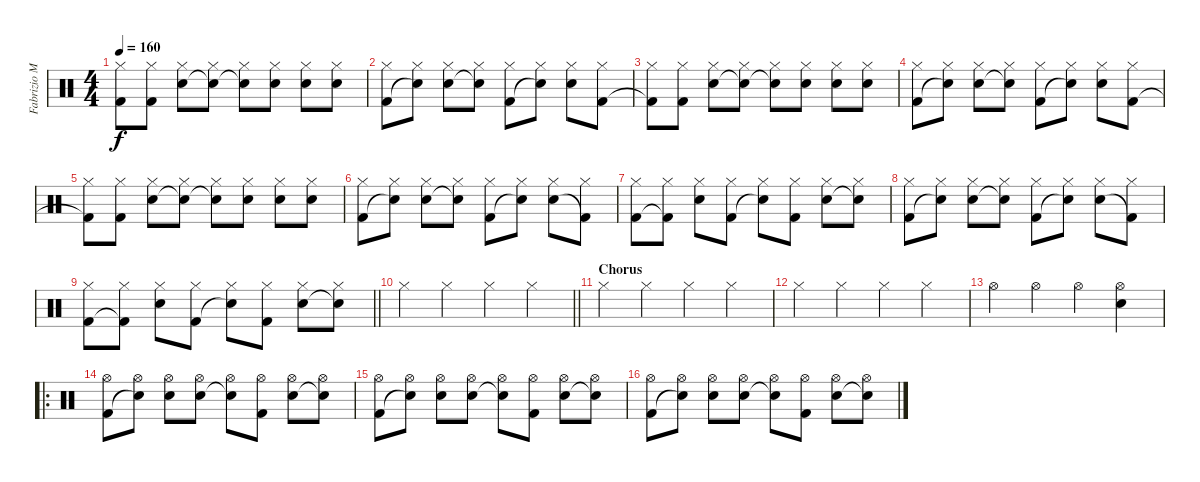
\track ("Fabrizio Moretti" "Fabrizio M") {instrument percussion}
\staff {score}
\articulation defaults
\ts (4 4)
\tempo 160
\clef neutral
\ks c
("Hi-Hat (closed)" "Kick (hit) 2"{t}).8{dy f} ("Hi-Hat (closed)" "Kick (hit) 2").8 ("Hi-Hat (closed)" "Electric Snare (hit)").8 ("Hi-Hat (closed)" "Snare (hit)"{t}).8 ("Hi-Hat (closed)" "Snare (hit)"{t}).8 ("Hi-Hat (closed)" "Electric Snare (hit)").8 ("Hi-Hat (closed)" "Electric Snare (hit)").8 ("Hi-Hat (closed)" "Electric Snare (hit)").8 |
("Hi-Hat (closed)" "Kick (hit) 2").8 ("Hi-Hat (closed)" "Snare (hit)"{t}).8 ("Hi-Hat (closed)" "Electric Snare (hit)").8 ("Hi-Hat (closed)" "Snare (hit)"{t}).8 ("Hi-Hat (closed)" "Kick (hit) 2").8 ("Hi-Hat (closed)" "Snare (hit)"{t}).8 ("Hi-Hat (closed)" "Electric Snare (hit)").8 ("Hi-Hat (closed)" "Kick (hit) 2").8 |
("Hi-Hat (closed)" "Kick (hit) 2"{t}).8 ("Hi-Hat (closed)" "Kick (hit) 2").8 ("Hi-Hat (closed)" "Electric Snare (hit)").8 ("Hi-Hat (closed)" "Snare (hit)"{t}).8 ("Hi-Hat (closed)" "Snare (hit)"{t}).8 ("Hi-Hat (closed)" "Electric Snare (hit)").8 ("Hi-Hat (closed)" "Electric Snare (hit)").8 ("Hi-Hat (closed)" "Electric Snare (hit)").8 |
("Hi-Hat (closed)" "Kick (hit) 2").8 ("Hi-Hat (closed)" "Snare (hit)"{t}).8 ("Hi-Hat (closed)" "Electric Snare (hit)").8 ("Hi-Hat (closed)" "Snare (hit)"{t}).8 ("Hi-Hat (closed)" "Kick (hit) 2").8 ("Hi-Hat (closed)" "Snare (hit)"{t}).8 ("Hi-Hat (closed)" "Electric Snare (hit)").8 ("Hi-Hat (closed)" "Kick (hit) 2").8 |
("Hi-Hat (closed)" "Kick (hit) 2"{t}).8 ("Hi-Hat (closed)" "Kick (hit) 2").8 ("Hi-Hat (closed)" "Electric Snare (hit)").8 ("Hi-Hat (closed)" "Snare (hit)"{t}).8 ("Hi-Hat (closed)" "Snare (hit)"{t}).8 ("Hi-Hat (closed)" "Electric Snare (hit)").8 ("Hi-Hat (closed)" "Electric Snare (hit)").8 ("Hi-Hat (closed)" "Electric Snare (hit)").8 |
("Hi-Hat (closed)" "Kick (hit) 2").8 ("Hi-Hat (closed)" "Snare (hit)"{t}).8 ("Hi-Hat (closed)" "Electric Snare (hit)").8 ("Hi-Hat (closed)" "Snare (hit)"{t}).8 ("Hi-Hat (closed)" "Kick (hit) 2").8 ("Hi-Hat (closed)" "Snare (hit)"{t}).8 ("Hi-Hat (closed)" "Electric Snare (hit)").8 ("Hi-Hat (closed)" "Kick (hit) 2"{t}).8 |
("Hi-Hat (closed)" "Kick (hit) 2").8 ("Hi-Hat (closed)" "Kick (hit) 2"{t}).8 ("Hi-Hat (closed)" "Electric Snare (hit)").8 ("Hi-Hat (closed)" "Kick (hit) 2").8 ("Hi-Hat (closed)" "Snare (hit)"{t}).8 ("Hi-Hat (closed)" "Kick (hit) 2").8 ("Hi-Hat (closed)" "Electric Snare (hit)").8 ("Hi-Hat (closed)" "Electric Snare (hit)"{t}).8 |
("Hi-Hat (closed)" "Kick (hit) 2").8 ("Hi-Hat (closed)" "Snare (hit)"{t}).8 ("Hi-Hat (closed)" "Electric Snare (hit)").8 ("Hi-Hat (closed)" "Snare (hit)"{t}).8 ("Hi-Hat (closed)" "Kick (hit) 2").8 ("Hi-Hat (closed)" "Snare (hit)"{t}).8 ("Hi-Hat (closed)" "Electric Snare (hit)").8 ("Hi-Hat (closed)" "Kick (hit) 2"{t}).8 |
\barLineRight lightlight
("Hi-Hat (closed)" "Kick (hit) 2").8 ("Hi-Hat (closed)" "Kick (hit) 2"{t}).8 ("Hi-Hat (closed)" "Electric Snare (hit)").8 ("Hi-Hat (closed)" "Kick (hit) 2").8 ("Hi-Hat (closed)" "Snare (hit)"{t}).8 ("Hi-Hat (closed)" "Kick (hit) 2").8 ("Hi-Hat (closed)" "Electric Snare (hit)").8 ("Hi-Hat (closed)" "Electric Snare (hit)"{t}).8 |
\barLineRight lightlight "Hi-Hat (closed)".4 "Hi-Hat (closed)".4 "Hi-Hat (closed)".4 "Hi-Hat (closed)".4
|
\section ("" "Chorus")
"Hi-Hat (closed)".4 "Hi-Hat (closed)".4 "Hi-Hat (closed)".4 "Hi-Hat (closed)".4 |
"Hi-Hat (closed)".4 "Hi-Hat (closed)".4 "Hi-Hat (closed)".4 "Hi-Hat (closed)".4 |
"Hi-Hat (open)".4 "Hi-Hat (open)".4 "Hi-Hat (open)".4 ("Hi-Hat (open)" "Electric Snare (hit)").4 |
\ro
("Hi-Hat (open)" "Kick (hit) 2").8 ("Hi-Hat (open)" "Snare (hit)"{t}).8 ("Hi-Hat (open)" "Electric Snare (hit)").8 ("Hi-Hat (open)" "Electric Snare (hit)").8 ("Hi-Hat (open)" "Snare (hit)"{t}).8 ("Hi-Hat (open)" "Kick (hit) 2").8 ("Hi-Hat (open)" "Electric Snare (hit)").8 ("Hi-Hat (open)" "Snare (hit)"{t}).8 |
("Hi-Hat (open)" "Kick (hit) 2").8 ("Hi-Hat (open)" "Snare (hit)"{t}).8 ("Hi-Hat (open)" "Electric Snare (hit)").8 ("Hi-Hat (open)" "Electric Snare (hit)").8 ("Hi-Hat (open)" "Snare (hit)"{t}).8 ("Hi-Hat (open)" "Kick (hit) 2").8 ("Hi-Hat (open)" "Electric Snare (hit)").8 ("Hi-Hat (open)" "Snare (hit)"{t}).8 |
("Hi-Hat (open)" "Kick (hit) 2").8 ("Hi-Hat (open)" "Snare (hit)"{t}).8 ("Hi-Hat (open)" "Electric Snare (hit)").8 ("Hi-Hat (open)" "Electric Snare (hit)").8 ("Hi-Hat (open)" "Snare (hit)"{t}).8 ("Hi-Hat (open)" "Kick (hit) 2").8 ("Hi-Hat (open)" "Electric Snare (hit)").8 ("Hi-Hat (open)" "Snare (hit)"{t}).8
